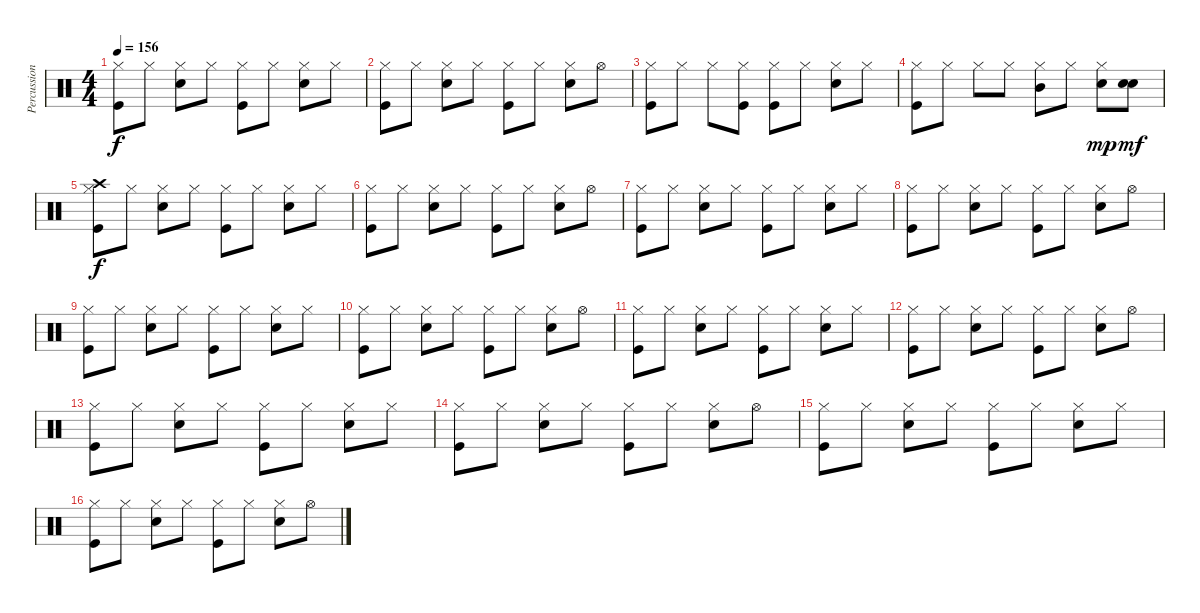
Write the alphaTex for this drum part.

\track ("Percussion" "Percussion") {instrument percussion}
\staff {score}
\articulation defaults
\ts (4 4)
\tempo 156
\clef neutral
\ks c
("Kick (hit)" "Hi-Hat (closed)").8{dy f} "Hi-Hat (closed)".8 ("Electric Snare (hit)" "Hi-Hat (closed)").8 "Hi-Hat (closed)".8 ("Kick (hit)" "Hi-Hat (closed)").8 "Hi-Hat (closed)".8 ("Electric Snare (hit)" "Hi-Hat (closed)").8 "Hi-Hat (closed)".8 |
("Kick (hit)" "Hi-Hat (closed)").8 "Hi-Hat (closed)".8 ("Electric Snare (hit)" "Hi-Hat (closed)").8 "Hi-Hat (closed)".8 ("Kick (hit)" "Hi-Hat (closed)").8 "Hi-Hat (closed)".8 ("Electric Snare (hit)" "Hi-Hat (closed)").8 "Hi-Hat (open)".8 |
("Kick (hit)" "Hi-Hat (closed)").8 "Hi-Hat (closed)".8 "Hi-Hat (closed)".8 ("Kick (hit)" "Hi-Hat (closed)").8 ("Kick (hit)" "Hi-Hat (closed)").8 "Hi-Hat (closed)".8 ("Electric Snare (hit)" "Hi-Hat (closed)").8 "Hi-Hat (closed)".8 |
("Kick (hit)" "Hi-Hat (closed)").8 "Hi-Hat (closed)".8 "Hi-Hat (closed)".8 "Hi-Hat (closed)".8 ("Mid Tom (hit)" "Hi-Hat (closed)").8 "Hi-Hat (closed)".8 ("Electric Snare (hit)" "Hi-Hat (closed)").8{dy mp} ("Electric Snare (hit)" "Snare (hit)").8{dy mf} |
("Kick (hit)" "Hi-Hat (closed)" "Crash high (hit)").8{dy f} "Hi-Hat (closed)".8 ("Electric Snare (hit)" "Hi-Hat (closed)").8 "Hi-Hat (closed)".8 ("Kick (hit)" "Hi-Hat (closed)").8 "Hi-Hat (closed)".8 ("Electric Snare (hit)" "Hi-Hat (closed)").8 "Hi-Hat (closed)".8 |
("Kick (hit)" "Hi-Hat (closed)").8 "Hi-Hat (closed)".8 ("Electric Snare (hit)" "Hi-Hat (closed)").8 "Hi-Hat (closed)".8 ("Kick (hit)" "Hi-Hat (closed)").8 "Hi-Hat (closed)".8 ("Electric Snare (hit)" "Hi-Hat (closed)").8 "Hi-Hat (open)".8 |
("Kick (hit)" "Hi-Hat (closed)").8 "Hi-Hat (closed)".8 ("Electric Snare (hit)" "Hi-Hat (closed)").8 "Hi-Hat (closed)".8 ("Kick (hit)" "Hi-Hat (closed)").8 "Hi-Hat (closed)".8 ("Electric Snare (hit)" "Hi-Hat (closed)").8 "Hi-Hat (closed)".8 |
("Kick (hit)" "Hi-Hat (closed)").8 "Hi-Hat (closed)".8 ("Electric Snare (hit)" "Hi-Hat (closed)").8 "Hi-Hat (closed)".8 ("Kick (hit)" "Hi-Hat (closed)").8 "Hi-Hat (closed)".8 ("Electric Snare (hit)" "Hi-Hat (closed)").8 "Hi-Hat (open)".8 |
("Kick (hit)" "Hi-Hat (closed)").8 "Hi-Hat (closed)".8 ("Electric Snare (hit)" "Hi-Hat (closed)").8 "Hi-Hat (closed)".8 ("Kick (hit)" "Hi-Hat (closed)").8 "Hi-Hat (closed)".8 ("Electric Snare (hit)" "Hi-Hat (closed)").8 "Hi-Hat (closed)".8 |
("Kick (hit)" "Hi-Hat (closed)").8 "Hi-Hat (closed)".8 ("Electric Snare (hit)" "Hi-Hat (closed)").8 "Hi-Hat (closed)".8 ("Kick (hit)" "Hi-Hat (closed)").8 "Hi-Hat (closed)".8 ("Electric Snare (hit)" "Hi-Hat (closed)").8 "Hi-Hat (open)".8 |
("Kick (hit)" "Hi-Hat (closed)").8 "Hi-Hat (closed)".8 ("Electric Snare (hit)" "Hi-Hat (closed)").8 "Hi-Hat (closed)".8 ("Kick (hit)" "Hi-Hat (closed)").8 "Hi-Hat (closed)".8 ("Electric Snare (hit)" "Hi-Hat (closed)").8 "Hi-Hat (closed)".8 |
("Kick (hit)" "Hi-Hat (closed)").8 "Hi-Hat (closed)".8 ("Electric Snare (hit)" "Hi-Hat (closed)").8 "Hi-Hat (closed)".8 ("Kick (hit)" "Hi-Hat (closed)").8 "Hi-Hat (closed)".8 ("Electric Snare (hit)" "Hi-Hat (closed)").8 "Hi-Hat (open)".8 |
("Kick (hit)" "Hi-Hat (closed)").8 "Hi-Hat (closed)".8 ("Electric Snare (hit)" "Hi-Hat (closed)").8 "Hi-Hat (closed)".8 ("Kick (hit)" "Hi-Hat (closed)").8 "Hi-Hat (closed)".8 ("Electric Snare (hit)" "Hi-Hat (closed)").8 "Hi-Hat (closed)".8 |
("Kick (hit)" "Hi-Hat (closed)").8 "Hi-Hat (closed)".8 ("Electric Snare (hit)" "Hi-Hat (closed)").8 "Hi-Hat (closed)".8 ("Kick (hit)" "Hi-Hat (closed)").8 "Hi-Hat (closed)".8 ("Electric Snare (hit)" "Hi-Hat (closed)").8 "Hi-Hat (open)".8 |
("Kick (hit)" "Hi-Hat (closed)").8 "Hi-Hat (closed)".8 ("Electric Snare (hit)" "Hi-Hat (closed)").8 "Hi-Hat (closed)".8 ("Kick (hit)" "Hi-Hat (closed)").8 "Hi-Hat (closed)".8 ("Electric Snare (hit)" "Hi-Hat (closed)").8 "Hi-Hat (closed)".8 |
("Kick (hit)" "Hi-Hat (closed)").8 "Hi-Hat (closed)".8 ("Electric Snare (hit)" "Hi-Hat (closed)").8 "Hi-Hat (closed)".8 ("Kick (hit)" "Hi-Hat (closed)").8 "Hi-Hat (closed)".8 ("Electric Snare (hit)" "Hi-Hat (closed)").8 "Hi-Hat (open)".8
